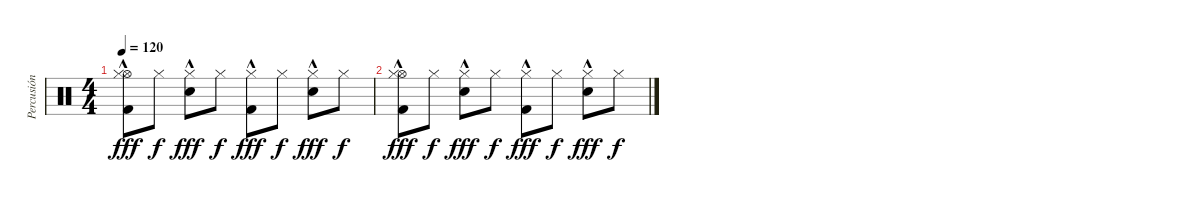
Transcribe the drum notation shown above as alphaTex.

\track ("Percusión" "Percusión") {instrument percussion}
\staff {score}
\articulation defaults
\ts (4 4)
\tempo 120
\clef neutral
\ks c
("Hi-Hat (open)"{hac} "Hi-Hat (closed)" "Kick (hit) 2"{hac}).8{dy fff} "Hi-Hat (closed)".8{dy f} ("Hi-Hat (closed)" "Electric Snare (hit)"{hac}).8{dy fff} "Hi-Hat (closed)".8{dy f} ("Hi-Hat (closed)" "Kick (hit) 2"{hac}).8{dy fff} "Hi-Hat (closed)".8{dy f} ("Hi-Hat (closed)" "Electric Snare (hit)"{hac}).8{dy fff} "Hi-Hat (closed)".8{dy f} |
("Hi-Hat (open)"{hac} "Hi-Hat (closed)" "Kick (hit) 2"{hac}).8{dy fff} "Hi-Hat (closed)".8{dy f} ("Hi-Hat (closed)" "Electric Snare (hit)"{hac}).8{dy fff} "Hi-Hat (closed)".8{dy f} ("Hi-Hat (closed)" "Kick (hit) 2"{hac}).8{dy fff} "Hi-Hat (closed)".8{dy f} ("Hi-Hat (closed)" "Electric Snare (hit)"{hac}).8{dy fff} "Hi-Hat (closed)".8{dy f}
